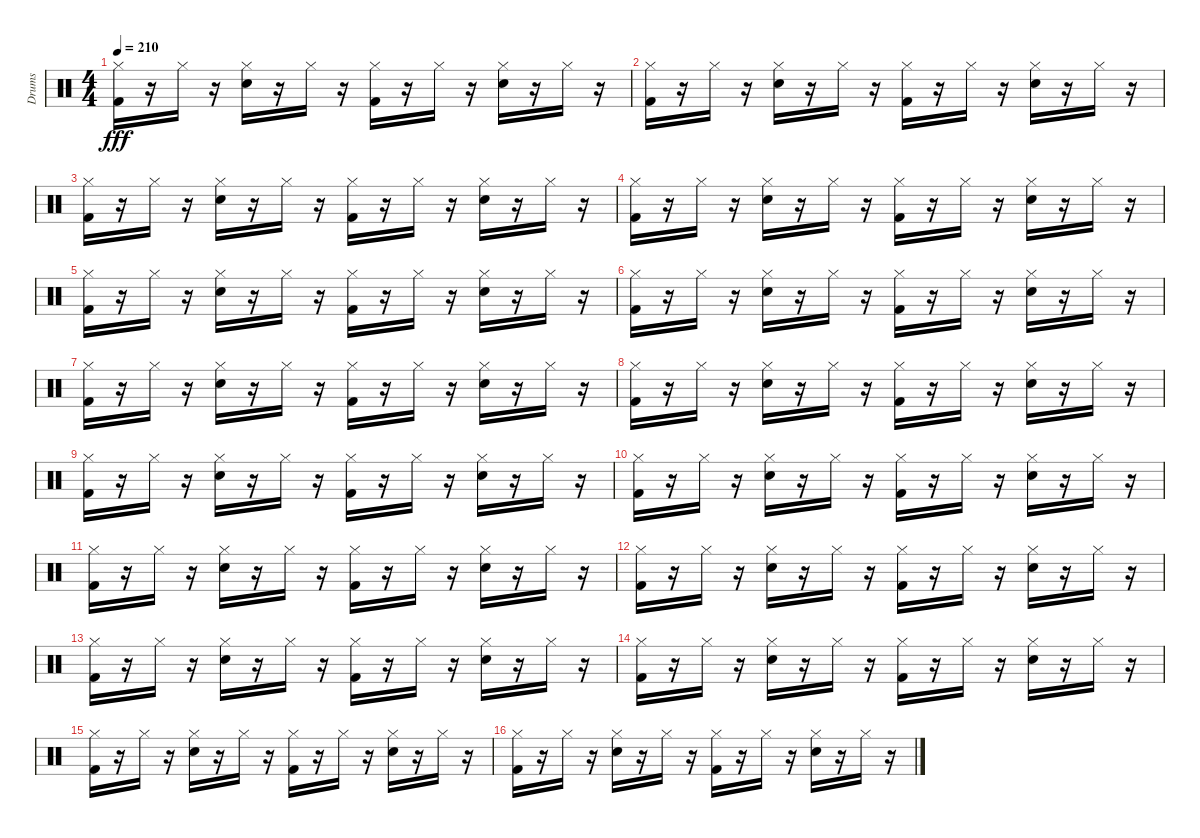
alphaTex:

\track ("Drums" "Drums") {instrument percussion}
\staff {score}
\articulation defaults
\ts (4 4)
\tempo 210
\clef neutral
\ks c
("Kick (hit) 2" "Hi-Hat (closed)").16{dy fff} r.16 "Hi-Hat (closed)".16 r.16 ("Hi-Hat (closed)" "Snare (hit) 2").16 r.16 "Hi-Hat (closed)".16 r.16 ("Hi-Hat (closed)" "Kick (hit) 2").16 r.16 "Hi-Hat (closed)".16 r.16 ("Hi-Hat (closed)" "Snare (hit) 2").16 r.16 "Hi-Hat (closed)".16 r.16 |
("Hi-Hat (closed)" "Kick (hit) 2").16 r.16 "Hi-Hat (closed)".16 r.16 ("Snare (hit) 2" "Hi-Hat (closed)").16 r.16 "Hi-Hat (closed)".16 r.16 ("Kick (hit) 2" "Hi-Hat (closed)").16 r.16 "Hi-Hat (closed)".16 r.16 ("Hi-Hat (closed)" "Snare (hit) 2").16 r.16 "Hi-Hat (closed)".16 r.16 |
("Hi-Hat (closed)" "Kick (hit) 2").16 r.16 "Hi-Hat (closed)".16 r.16 ("Hi-Hat (closed)" "Snare (hit) 2").16 r.16 "Hi-Hat (closed)".16 r.16 ("Kick (hit) 2" "Hi-Hat (closed)").16 r.16 "Hi-Hat (closed)".16 r.16 ("Hi-Hat (closed)" "Snare (hit) 2").16 r.16 "Hi-Hat (closed)".16 r.16 |
("Hi-Hat (closed)" "Kick (hit) 2").16 r.16 "Hi-Hat (closed)".16 r.16 ("Snare (hit) 2" "Hi-Hat (closed)").16 r.16 "Hi-Hat (closed)".16 r.16 ("Kick (hit) 2" "Hi-Hat (closed)").16 r.16 "Hi-Hat (closed)".16 r.16 ("Snare (hit) 2" "Hi-Hat (closed)").16 r.16 "Hi-Hat (closed)".16 r.16 |
("Hi-Hat (closed)" "Kick (hit) 2").16 r.16 "Hi-Hat (closed)".16 r.16 ("Hi-Hat (closed)" "Snare (hit) 2").16 r.16 "Hi-Hat (closed)".16 r.16 ("Hi-Hat (closed)" "Kick (hit) 2").16 r.16 "Hi-Hat (closed)".16 r.16 ("Hi-Hat (closed)" "Snare (hit) 2").16 r.16 "Hi-Hat (closed)".16 r.16 |
("Hi-Hat (closed)" "Kick (hit) 2").16 r.16 "Hi-Hat (closed)".16 r.16 ("Hi-Hat (closed)" "Snare (hit) 2").16 r.16 "Hi-Hat (closed)".16 r.16 ("Kick (hit) 2" "Hi-Hat (closed)").16 r.16 "Hi-Hat (closed)".16 r.16 ("Snare (hit) 2" "Hi-Hat (closed)").16 r.16 "Hi-Hat (closed)".16 r.16 |
("Kick (hit) 2" "Hi-Hat (closed)").16 r.16 "Hi-Hat (closed)".16 r.16 ("Hi-Hat (closed)" "Snare (hit) 2").16 r.16 "Hi-Hat (closed)".16 r.16 ("Kick (hit) 2" "Hi-Hat (closed)").16 r.16 "Hi-Hat (closed)".16 r.16 ("Hi-Hat (closed)" "Snare (hit) 2").16 r.16 "Hi-Hat (closed)".16 r.16 |
("Kick (hit) 2" "Hi-Hat (closed)").16 r.16 "Hi-Hat (closed)".16 r.16 ("Hi-Hat (closed)" "Snare (hit) 2").16 r.16 "Hi-Hat (closed)".16 r.16 ("Kick (hit) 2" "Hi-Hat (closed)").16 r.16 "Hi-Hat (closed)".16 r.16 ("Hi-Hat (closed)" "Snare (hit) 2").16 r.16 "Hi-Hat (closed)".16 r.16 |
("Kick (hit) 2" "Hi-Hat (closed)").16 r.16 "Hi-Hat (closed)".16 r.16 ("Hi-Hat (closed)" "Snare (hit) 2").16 r.16 "Hi-Hat (closed)".16 r.16 ("Kick (hit) 2" "Hi-Hat (closed)").16 r.16 "Hi-Hat (closed)".16 r.16 ("Snare (hit) 2" "Hi-Hat (closed)").16 r.16 "Hi-Hat (closed)".16 r.16 |
("Kick (hit) 2" "Hi-Hat (closed)").16 r.16 "Hi-Hat (closed)".16 r.16 ("Snare (hit) 2" "Hi-Hat (closed)").16 r.16 "Hi-Hat (closed)".16 r.16 ("Hi-Hat (closed)" "Kick (hit) 2").16 r.16 "Hi-Hat (closed)".16 r.16 ("Snare (hit) 2" "Hi-Hat (closed)").16 r.16 "Hi-Hat (closed)".16 r.16 |
("Hi-Hat (closed)" "Kick (hit) 2").16 r.16 "Hi-Hat (closed)".16 r.16 ("Hi-Hat (closed)" "Snare (hit) 2").16 r.16 "Hi-Hat (closed)".16 r.16 ("Kick (hit) 2" "Hi-Hat (closed)").16 r.16 "Hi-Hat (closed)".16 r.16 ("Snare (hit) 2" "Hi-Hat (closed)").16 r.16 "Hi-Hat (closed)".16 r.16 |
("Hi-Hat (closed)" "Kick (hit) 2").16 r.16 "Hi-Hat (closed)".16 r.16 ("Hi-Hat (closed)" "Snare (hit) 2").16 r.16 "Hi-Hat (closed)".16 r.16 ("Kick (hit) 2" "Hi-Hat (closed)").16 r.16 "Hi-Hat (closed)".16 r.16 ("Snare (hit) 2" "Hi-Hat (closed)").16 r.16 "Hi-Hat (closed)".16 r.16 |
("Hi-Hat (closed)" "Kick (hit) 2").16 r.16 "Hi-Hat (closed)".16 r.16 ("Hi-Hat (closed)" "Snare (hit) 2").16 r.16 "Hi-Hat (closed)".16 r.16 ("Kick (hit) 2" "Hi-Hat (closed)").16 r.16 "Hi-Hat (closed)".16 r.16 ("Snare (hit) 2" "Hi-Hat (closed)").16 r.16 "Hi-Hat (closed)".16 r.16 |
("Hi-Hat (closed)" "Kick (hit) 2").16 r.16 "Hi-Hat (closed)".16 r.16 ("Snare (hit) 2" "Hi-Hat (closed)").16 r.16 "Hi-Hat (closed)".16 r.16 ("Hi-Hat (closed)" "Kick (hit) 2").16 r.16 "Hi-Hat (closed)".16 r.16 ("Snare (hit) 2" "Hi-Hat (closed)").16 r.16 "Hi-Hat (closed)".16 r.16 |
("Kick (hit) 2" "Hi-Hat (closed)").16 r.16 "Hi-Hat (closed)".16 r.16 ("Snare (hit) 2" "Hi-Hat (closed)").16 r.16 "Hi-Hat (closed)".16 r.16 ("Kick (hit) 2" "Hi-Hat (closed)").16 r.16 "Hi-Hat (closed)".16 r.16 ("Hi-Hat (closed)" "Snare (hit) 2").16 r.16 "Hi-Hat (closed)".16 r.16 |
("Kick (hit) 2" "Hi-Hat (closed)").16 r.16 "Hi-Hat (closed)".16 r.16 ("Hi-Hat (closed)" "Snare (hit) 2").16 r.16 "Hi-Hat (closed)".16 r.16 ("Hi-Hat (closed)" "Kick (hit) 2").16 r.16 "Hi-Hat (closed)".16 r.16 ("Hi-Hat (closed)" "Snare (hit) 2").16 r.16 "Hi-Hat (closed)".16 r.16
